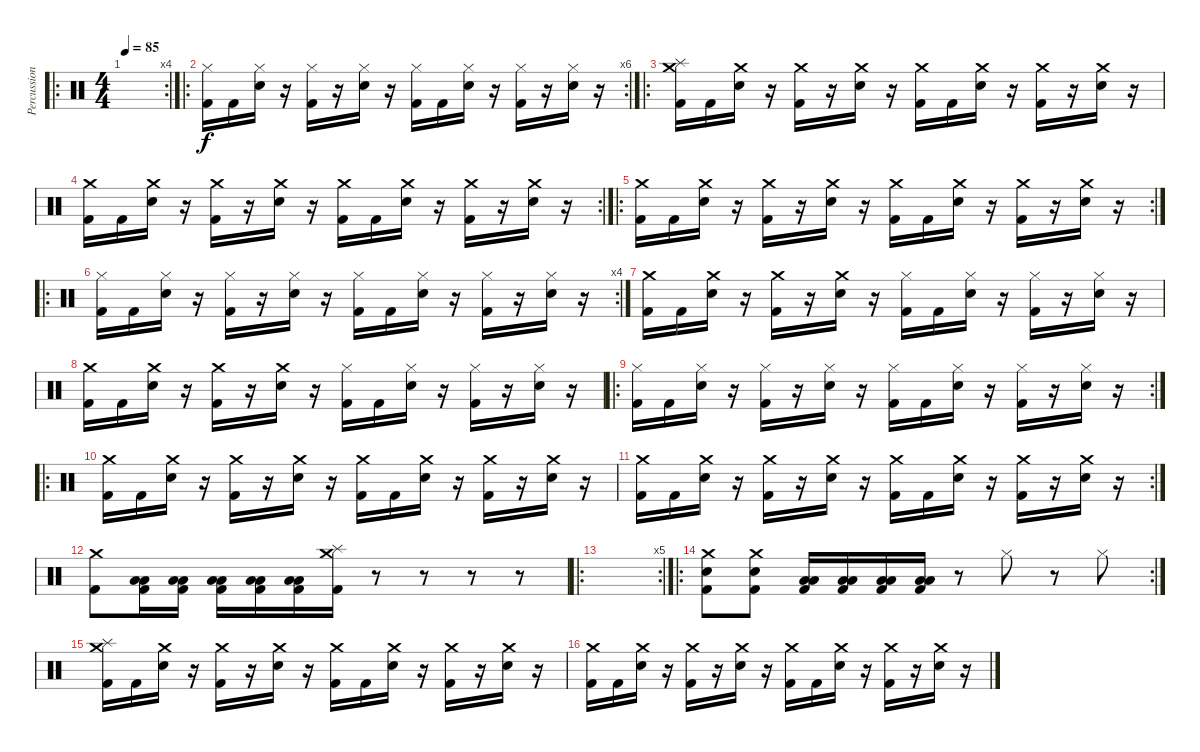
\track ("Percussion" "Percussion") {instrument percussion}
\staff {score}
\articulation defaults
\ro
\rc 4
\ts (4 4)
\tempo 85
\clef neutral
\ks c
|
\ro
\rc 6
("Hi-Hat (closed)" "Kick (hit) 2").16 "Kick (hit) 2".16 ("Hi-Hat (closed)" "Electric Snare (hit)").16 r.16 ("Hi-Hat (closed)" "Kick (hit) 2").16 r.16 ("Hi-Hat (closed)" "Electric Snare (hit)").16 r.16 ("Hi-Hat (closed)" "Kick (hit) 2").16 "Kick (hit) 2".16 ("Hi-Hat (closed)" "Electric Snare (hit)").16 r.16 ("Hi-Hat (closed)" "Kick (hit) 2").16 r.16 ("Hi-Hat (closed)" "Electric Snare (hit)").16 r.16 |
\ro
("Crash medium (hit)" "Splash (hit)" "Kick (hit) 2").16 "Kick (hit) 2".16 ("Crash medium (hit)" "Electric Snare (hit)").16 r.16 ("Crash medium (hit)" "Kick (hit) 2").16 r.16 ("Crash medium (hit)" "Electric Snare (hit)").16 r.16 ("Crash medium (hit)" "Kick (hit) 2").16 "Kick (hit) 2".16 ("Crash medium (hit)" "Electric Snare (hit)").16 r.16 ("Crash medium (hit)" "Kick (hit) 2").16 r.16 ("Crash medium (hit)" "Electric Snare (hit)").16 r.16 |
\rc 2
("Crash medium (hit)" "Kick (hit) 2").16 "Kick (hit) 2".16 ("Crash medium (hit)" "Electric Snare (hit)").16 r.16 ("Crash medium (hit)" "Kick (hit) 2").16 r.16 ("Crash medium (hit)" "Electric Snare (hit)").16 r.16 ("Crash medium (hit)" "Kick (hit) 2").16 "Kick (hit) 2".16 ("Crash medium (hit)" "Electric Snare (hit)").16 r.16 ("Crash medium (hit)" "Kick (hit) 2").16 r.16 ("Crash medium (hit)" "Electric Snare (hit)").16 r.16 |
\ro
\rc 2
("Crash medium (hit)" "Kick (hit) 2").16 "Kick (hit) 2".16 ("Crash medium (hit)" "Electric Snare (hit)").16 r.16 ("Crash medium (hit)" "Kick (hit) 2").16 r.16 ("Crash medium (hit)" "Electric Snare (hit)").16 r.16 ("Crash medium (hit)" "Kick (hit) 2").16 "Kick (hit) 2".16 ("Crash medium (hit)" "Electric Snare (hit)").16 r.16 ("Crash medium (hit)" "Kick (hit) 2").16 r.16 ("Crash medium (hit)" "Electric Snare (hit)").16 r.16 |
\ro
\rc 4
("Hi-Hat (closed)" "Kick (hit) 2").16 "Kick (hit) 2".16 ("Hi-Hat (closed)" "Electric Snare (hit)").16 r.16 ("Hi-Hat (closed)" "Kick (hit) 2").16 r.16 ("Hi-Hat (closed)" "Electric Snare (hit)").16 r.16 ("Hi-Hat (closed)" "Kick (hit) 2").16 "Kick (hit) 2".16 ("Hi-Hat (closed)" "Electric Snare (hit)").16 r.16 ("Hi-Hat (closed)" "Kick (hit) 2").16 r.16 ("Hi-Hat (closed)" "Electric Snare (hit)").16 r.16 |
("Crash medium (hit)" "Kick (hit) 2").16 "Kick (hit) 2".16 ("Crash medium (hit)" "Electric Snare (hit)").16 r.16 ("Crash medium (hit)" "Kick (hit) 2").16 r.16 ("Crash medium (hit)" "Electric Snare (hit)").16 r.16 ("Hi-Hat (closed)" "Kick (hit) 2").16 "Kick (hit) 2".16 ("Hi-Hat (closed)" "Electric Snare (hit)").16 r.16 ("Hi-Hat (closed)" "Kick (hit) 2").16 r.16 ("Hi-Hat (closed)" "Electric Snare (hit)").16 r.16 |
("Crash medium (hit)" "Kick (hit) 2").16 "Kick (hit) 2".16 ("Crash medium (hit)" "Electric Snare (hit)").16 r.16 ("Crash medium (hit)" "Kick (hit) 2").16 r.16 ("Crash medium (hit)" "Electric Snare (hit)").16 r.16 ("Hi-Hat (closed)" "Kick (hit) 2").16 "Kick (hit) 2".16 ("Hi-Hat (closed)" "Electric Snare (hit)").16 r.16 ("Hi-Hat (closed)" "Kick (hit) 2").16 r.16 ("Hi-Hat (closed)" "Electric Snare (hit)").16 r.16 |
\ro
\rc 2
("Hi-Hat (closed)" "Kick (hit) 2").16 "Kick (hit) 2".16 ("Hi-Hat (closed)" "Electric Snare (hit)").16 r.16 ("Hi-Hat (closed)" "Kick (hit) 2").16 r.16 ("Hi-Hat (closed)" "Electric Snare (hit)").16 r.16 ("Hi-Hat (closed)" "Kick (hit) 2").16 "Kick (hit) 2".16 ("Hi-Hat (closed)" "Electric Snare (hit)").16 r.16 ("Hi-Hat (closed)" "Kick (hit) 2").16 r.16 ("Hi-Hat (closed)" "Electric Snare (hit)").16 r.16 |
\ro
("Crash medium (hit)" "Kick (hit) 2").16 "Kick (hit) 2".16 ("Crash medium (hit)" "Electric Snare (hit)").16 r.16 ("Crash medium (hit)" "Kick (hit) 2").16 r.16 ("Crash medium (hit)" "Electric Snare (hit)").16 r.16 ("Crash medium (hit)" "Kick (hit) 2").16 "Kick (hit) 2".16 ("Crash medium (hit)" "Electric Snare (hit)").16 r.16 ("Crash medium (hit)" "Kick (hit) 2").16 r.16 ("Crash medium (hit)" "Electric Snare (hit)").16 r.16 |
\rc 2
("Crash medium (hit)" "Kick (hit) 2").16 "Kick (hit) 2".16 ("Crash medium (hit)" "Electric Snare (hit)").16 r.16 ("Crash medium (hit)" "Kick (hit) 2").16 r.16 ("Crash medium (hit)" "Electric Snare (hit)").16 r.16 ("Crash medium (hit)" "Kick (hit) 2").16 "Kick (hit) 2".16 ("Crash medium (hit)" "Electric Snare (hit)").16 r.16 ("Crash medium (hit)" "Kick (hit) 2").16 r.16 ("Crash medium (hit)" "Electric Snare (hit)").16 r.16 |
("Crash medium (hit)" "Kick (hit) 2").8 ("Low Tom (hit)" "Low Floor Tom (hit)" "Kick (hit) 2").16 ("Low Tom (hit)" "Low Floor Tom (hit)" "Kick (hit) 2").16 ("Low Tom (hit)" "Low Floor Tom (hit)" "Kick (hit) 2").16 ("Low Tom (hit)" "Low Floor Tom (hit)" "Kick (hit) 2").16 ("Low Tom (hit)" "Low Floor Tom (hit)" "Kick (hit) 2").16 ("Crash medium (hit)" "Splash (hit)" "Kick (hit) 2").16 r.8 r.8 r.8 r.8 |
\ro
\rc 5
|
\ro
\rc 2
("Crash medium (hit)" "Electric Snare (hit)" "Kick (hit) 2").8 ("Crash medium (hit)" "Electric Snare (hit)" "Kick (hit) 2").8 ("Low Tom (hit)" "Low Floor Tom (hit)" "Kick (hit) 2").16 ("Low Tom (hit)" "Low Floor Tom (hit)" "Kick (hit) 2").16 ("Low Tom (hit)" "Low Floor Tom (hit)" "Kick (hit) 2").16 ("Low Tom (hit)" "Low Floor Tom (hit)" "Kick (hit) 2").16 r.8 "Hi-Hat (closed)".8 r.8 "Hi-Hat (closed)".8 |
("Crash medium (hit)" "Splash (hit)" "Kick (hit) 2").16 "Kick (hit) 2".16 ("Crash medium (hit)" "Electric Snare (hit)").16 r.16 ("Crash medium (hit)" "Kick (hit) 2").16 r.16 ("Crash medium (hit)" "Electric Snare (hit)").16 r.16 ("Crash medium (hit)" "Kick (hit) 2").16 "Kick (hit) 2".16 ("Crash medium (hit)" "Electric Snare (hit)").16 r.16 ("Crash medium (hit)" "Kick (hit) 2").16 r.16 ("Crash medium (hit)" "Electric Snare (hit)").16 r.16 |
("Crash medium (hit)" "Kick (hit) 2").16 "Kick (hit) 2".16 ("Crash medium (hit)" "Electric Snare (hit)").16 r.16 ("Crash medium (hit)" "Kick (hit) 2").16 r.16 ("Crash medium (hit)" "Electric Snare (hit)").16 r.16 ("Crash medium (hit)" "Kick (hit) 2").16 "Kick (hit) 2".16 ("Crash medium (hit)" "Electric Snare (hit)").16 r.16 ("Crash medium (hit)" "Kick (hit) 2").16 r.16 ("Crash medium (hit)" "Electric Snare (hit)").16 r.16
